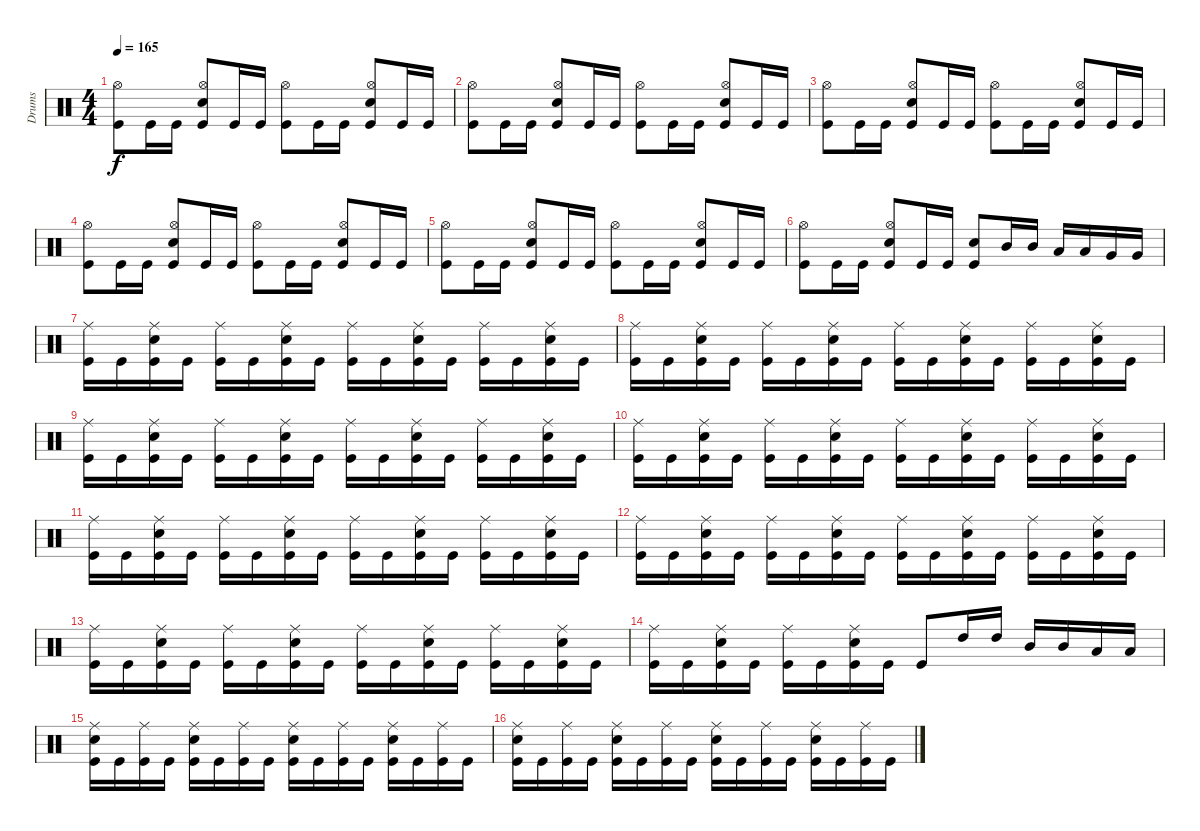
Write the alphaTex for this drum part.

\track ("Drums" "Drums") {instrument percussion}
\staff {score}
\articulation defaults
\ts (4 4)
\tempo 165
\clef neutral
\ks c
("Kick (hit)" "Hi-Hat (open)").8{dy f} "Kick (hit)".16 "Kick (hit)".16 ("Kick (hit)" "Snare (hit) 2" "Hi-Hat (open)").8 "Kick (hit)".16 "Kick (hit)".16 ("Kick (hit)" "Hi-Hat (open)").8 "Kick (hit)".16 "Kick (hit)".16 ("Snare (hit) 2" "Kick (hit)" "Hi-Hat (open)").8 "Kick (hit)".16 "Kick (hit)".16 |
("Kick (hit)" "Hi-Hat (open)").8 "Kick (hit)".16 "Kick (hit)".16 ("Kick (hit)" "Snare (hit) 2" "Hi-Hat (open)").8 "Kick (hit)".16 "Kick (hit)".16 ("Kick (hit)" "Hi-Hat (open)").8 "Kick (hit)".16 "Kick (hit)".16 ("Snare (hit) 2" "Kick (hit)" "Hi-Hat (open)").8 "Kick (hit)".16 "Kick (hit)".16 |
("Kick (hit)" "Hi-Hat (open)").8 "Kick (hit)".16 "Kick (hit)".16 ("Kick (hit)" "Snare (hit) 2" "Hi-Hat (open)").8 "Kick (hit)".16 "Kick (hit)".16 ("Kick (hit)" "Hi-Hat (open)").8 "Kick (hit)".16 "Kick (hit)".16 ("Snare (hit) 2" "Kick (hit)" "Hi-Hat (open)").8 "Kick (hit)".16 "Kick (hit)".16 |
("Kick (hit)" "Hi-Hat (open)").8 "Kick (hit)".16 "Kick (hit)".16 ("Kick (hit)" "Snare (hit) 2" "Hi-Hat (open)").8 "Kick (hit)".16 "Kick (hit)".16 ("Kick (hit)" "Hi-Hat (open)").8 "Kick (hit)".16 "Kick (hit)".16 ("Snare (hit) 2" "Kick (hit)" "Hi-Hat (open)").8 "Kick (hit)".16 "Kick (hit)".16 |
("Kick (hit)" "Hi-Hat (open)").8 "Kick (hit)".16 "Kick (hit)".16 ("Kick (hit)" "Snare (hit) 2" "Hi-Hat (open)").8 "Kick (hit)".16 "Kick (hit)".16 ("Kick (hit)" "Hi-Hat (open)").8 "Kick (hit)".16 "Kick (hit)".16 ("Snare (hit) 2" "Kick (hit)" "Hi-Hat (open)").8 "Kick (hit)".16 "Kick (hit)".16 |
("Kick (hit)" "Hi-Hat (open)").8 "Kick (hit)".16 "Kick (hit)".16 ("Kick (hit)" "Snare (hit) 2" "Hi-Hat (open)").8 "Kick (hit)".16 "Kick (hit)".16 ("Snare (hit) 2" "Kick (hit)").8 "Mid Tom (hit)".16 "Mid Tom (hit)".16 "Low Tom (hit)".16 "Low Tom (hit)".16 "Very Low Tom (hit)".16 "Very Low Tom (hit)".16 |
("Kick (hit)" "Ride (middle)").16 "Kick (hit)".16 ("Kick (hit)" "Snare (hit) 2" "Ride (middle)").16 "Kick (hit)".16 ("Kick (hit)" "Ride (middle)").16 "Kick (hit)".16 ("Kick (hit)" "Snare (hit) 2" "Ride (middle)").16 "Kick (hit)".16 ("Kick (hit)" "Ride (middle)").16 "Kick (hit)".16 ("Kick (hit)" "Snare (hit) 2" "Ride (middle)").16 "Kick (hit)".16 ("Kick (hit)" "Ride (middle)").16 "Kick (hit)".16 ("Kick (hit)" "Snare (hit) 2" "Ride (middle)").16 "Kick (hit)".16 |
("Kick (hit)" "Ride (middle)").16 "Kick (hit)".16 ("Kick (hit)" "Snare (hit) 2" "Ride (middle)").16 "Kick (hit)".16 ("Kick (hit)" "Ride (middle)").16 "Kick (hit)".16 ("Kick (hit)" "Snare (hit) 2" "Ride (middle)").16 "Kick (hit)".16 ("Kick (hit)" "Ride (middle)").16 "Kick (hit)".16 ("Kick (hit)" "Snare (hit) 2" "Ride (middle)").16 "Kick (hit)".16 ("Kick (hit)" "Ride (middle)").16 "Kick (hit)".16 ("Kick (hit)" "Snare (hit) 2" "Ride (middle)").16 "Kick (hit)".16 |
("Kick (hit)" "Ride (middle)").16 "Kick (hit)".16 ("Kick (hit)" "Snare (hit) 2" "Ride (middle)").16 "Kick (hit)".16 ("Kick (hit)" "Ride (middle)").16 "Kick (hit)".16 ("Kick (hit)" "Snare (hit) 2" "Ride (middle)").16 "Kick (hit)".16 ("Kick (hit)" "Ride (middle)").16 "Kick (hit)".16 ("Kick (hit)" "Snare (hit) 2" "Ride (middle)").16 "Kick (hit)".16 ("Kick (hit)" "Ride (middle)").16 "Kick (hit)".16 ("Kick (hit)" "Snare (hit) 2" "Ride (middle)").16 "Kick (hit)".16 |
("Kick (hit)" "Ride (middle)").16 "Kick (hit)".16 ("Kick (hit)" "Snare (hit) 2" "Ride (middle)").16 "Kick (hit)".16 ("Kick (hit)" "Ride (middle)").16 "Kick (hit)".16 ("Kick (hit)" "Snare (hit) 2" "Ride (middle)").16 "Kick (hit)".16 ("Kick (hit)" "Ride (middle)").16 "Kick (hit)".16 ("Kick (hit)" "Snare (hit) 2" "Ride (middle)").16 "Kick (hit)".16 ("Kick (hit)" "Ride (middle)").16 "Kick (hit)".16 ("Kick (hit)" "Snare (hit) 2" "Ride (middle)").16 "Kick (hit)".16 |
("Kick (hit)" "Ride (middle)").16 "Kick (hit)".16 ("Kick (hit)" "Snare (hit) 2" "Ride (middle)").16 "Kick (hit)".16 ("Kick (hit)" "Ride (middle)").16 "Kick (hit)".16 ("Kick (hit)" "Snare (hit) 2" "Ride (middle)").16 "Kick (hit)".16 ("Kick (hit)" "Ride (middle)").16 "Kick (hit)".16 ("Kick (hit)" "Snare (hit) 2" "Ride (middle)").16 "Kick (hit)".16 ("Kick (hit)" "Ride (middle)").16 "Kick (hit)".16 ("Kick (hit)" "Snare (hit) 2" "Ride (middle)").16 "Kick (hit)".16 |
("Kick (hit)" "Ride (middle)").16 "Kick (hit)".16 ("Kick (hit)" "Snare (hit) 2" "Ride (middle)").16 "Kick (hit)".16 ("Kick (hit)" "Ride (middle)").16 "Kick (hit)".16 ("Kick (hit)" "Snare (hit) 2" "Ride (middle)").16 "Kick (hit)".16 ("Kick (hit)" "Ride (middle)").16 "Kick (hit)".16 ("Kick (hit)" "Snare (hit) 2" "Ride (middle)").16 "Kick (hit)".16 ("Kick (hit)" "Ride (middle)").16 "Kick (hit)".16 ("Kick (hit)" "Snare (hit) 2" "Ride (middle)").16 "Kick (hit)".16 |
("Kick (hit)" "Ride (middle)").16 "Kick (hit)".16 ("Kick (hit)" "Snare (hit) 2" "Ride (middle)").16 "Kick (hit)".16 ("Kick (hit)" "Ride (middle)").16 "Kick (hit)".16 ("Kick (hit)" "Snare (hit) 2" "Ride (middle)").16 "Kick (hit)".16 ("Kick (hit)" "Ride (middle)").16 "Kick (hit)".16 ("Kick (hit)" "Snare (hit) 2" "Ride (middle)").16 "Kick (hit)".16 ("Kick (hit)" "Ride (middle)").16 "Kick (hit)".16 ("Kick (hit)" "Snare (hit) 2" "Ride (middle)").16 "Kick (hit)".16 |
("Kick (hit)" "Ride (middle)").16 "Kick (hit)".16 ("Kick (hit)" "Snare (hit) 2" "Ride (middle)").16 "Kick (hit)".16 ("Kick (hit)" "Ride (middle)").16 "Kick (hit)".16 ("Kick (hit)" "Snare (hit) 2" "Ride (middle)").16 "Kick (hit)".16 "Kick (hit)".8 "High Tom (hit)".16 "High Tom (hit)".16 "Mid Tom (hit)".16 "Mid Tom (hit)".16 "Low Tom (hit)".16 "Low Tom (hit)".16 |
("Kick (hit)" "Snare (hit) 2" "Ride (middle)").16 "Kick (hit)".16 ("Kick (hit)" "Ride (middle)").16 "Kick (hit)".16 ("Kick (hit)" "Snare (hit) 2" "Ride (middle)").16 "Kick (hit)".16 ("Kick (hit)" "Ride (middle)").16 "Kick (hit)".16 ("Kick (hit)" "Snare (hit) 2" "Ride (middle)").16 "Kick (hit)".16 ("Kick (hit)" "Ride (middle)").16 "Kick (hit)".16 ("Kick (hit)" "Snare (hit) 2" "Ride (middle)").16 "Kick (hit)".16 ("Kick (hit)" "Ride (middle)").16 "Kick (hit)".16 |
("Kick (hit)" "Snare (hit) 2" "Ride (middle)").16 "Kick (hit)".16 ("Kick (hit)" "Ride (middle)").16 "Kick (hit)".16 ("Kick (hit)" "Snare (hit) 2" "Ride (middle)").16 "Kick (hit)".16 ("Kick (hit)" "Ride (middle)").16 "Kick (hit)".16 ("Kick (hit)" "Snare (hit) 2" "Ride (middle)").16 "Kick (hit)".16 ("Kick (hit)" "Ride (middle)").16 "Kick (hit)".16 ("Kick (hit)" "Snare (hit) 2" "Ride (middle)").16 "Kick (hit)".16 ("Kick (hit)" "Ride (middle)").16 "Kick (hit)".16
